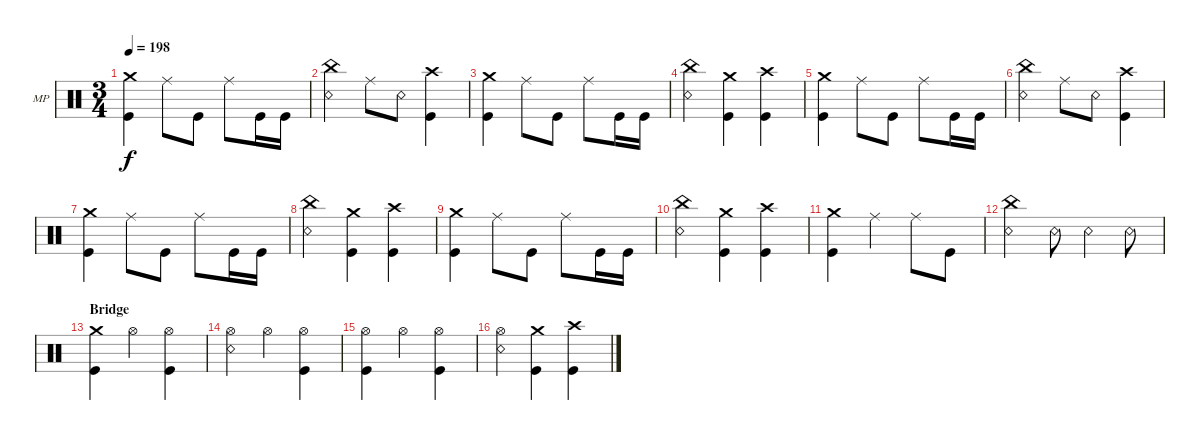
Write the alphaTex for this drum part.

\defaultSystemsLayout 4
\bracketExtendMode groupsimilarinstruments
\firstSystemTrackNameOrientation horizontal
\otherSystemsTrackNameOrientation horizontal
\track ("Mike Portnoy" "MP") {instrument percussion}
\staff {score}
\articulation defaults
\ts (3 4)
\tempo 198
\clef neutral
\ks c
("Crash medium (hit)" "Kick (hit)").4{dy f} "Ride (middle)".8 "Kick (hit)".8 "Ride (middle)".8 "Kick (hit)".16 "Kick (hit)".16 |
("China (hit)" "Snare (rim shot)").4 "Ride (middle)".8 "Snare (rim shot)".8 ("Crash high (hit)" "Kick (hit)").4 |
("Crash medium (hit)" "Kick (hit)").4 "Ride (middle)".8 "Kick (hit)".8 "Ride (middle)".8 "Kick (hit)".16 "Kick (hit)".16 |
("China (hit)" "Snare (rim shot)").4 ("Crash medium (hit)" "Kick (hit)").4 ("Crash high (hit)" "Kick (hit)").4 |
("Crash medium (hit)" "Kick (hit)").4 "Ride (middle)".8 "Kick (hit)".8 "Ride (middle)".8 "Kick (hit)".16 "Kick (hit)".16 |
("China (hit)" "Snare (rim shot)").4 "Ride (middle)".8 "Snare (rim shot)".8 ("Crash high (hit)" "Kick (hit)").4 |
("Crash medium (hit)" "Kick (hit)").4 "Ride (middle)".8 "Kick (hit)".8 "Ride (middle)".8 "Kick (hit)".16 "Kick (hit)".16 |
("China (hit)" "Snare (rim shot)").4 ("Crash medium (hit)" "Kick (hit)").4 ("Crash high (hit)" "Kick (hit)").4 |
("Crash medium (hit)" "Kick (hit)").4 "Ride (middle)".8 "Kick (hit)".8 "Ride (middle)".8 "Kick (hit)".16 "Kick (hit)".16 |
("China (hit)" "Snare (rim shot)").4 ("Crash medium (hit)" "Kick (hit)").4 ("Crash high (hit)" "Kick (hit)").4 |
("Crash medium (hit)" "Kick (hit)").4 "Ride (middle)".4 "Ride (middle)".8 "Kick (hit)".8 |
("China (hit)" "Snare (rim shot)").4 "Snare (rim shot)".8 "Snare (rim shot)".4 "Snare (rim shot)".8 |
\section ("" "Bridge")
("Crash medium (hit)" "Kick (hit)").4 "Hi-Hat (open)".4 ("Hi-Hat (open)" "Kick (hit)").4 |
("Hi-Hat (open)" "Snare (rim shot)").4 "Hi-Hat (open)".4 ("Hi-Hat (open)" "Kick (hit)").4 |
("Hi-Hat (open)" "Kick (hit)").4 "Hi-Hat (open)".4 ("Hi-Hat (open)" "Kick (hit)").4 |
("Hi-Hat (open)" "Snare (rim shot)").4 ("Crash medium (hit)" "Kick (hit)").4 ("Crash high (hit)" "Kick (hit)").4
